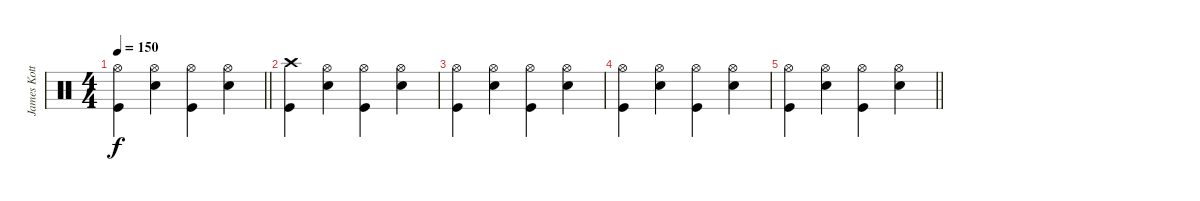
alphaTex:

\track ("James Kottak" "James Kott") {instrument percussion}
\staff {score}
\articulation defaults
\ts (4 4)
\tempo 150
\clef neutral
\barLineRight lightlight
\ks c
("Hi-Hat (open)" "Kick (hit)").4{dy f} ("Hi-Hat (open)" "Snare (hit) 2").4 ("Hi-Hat (open)" "Kick (hit)").4 ("Hi-Hat (open)" "Snare (hit) 2").4 |
("Crash high (hit)" "Kick (hit)").4 ("Hi-Hat (open)" "Snare (hit) 2").4 ("Hi-Hat (open)" "Kick (hit)").4 ("Hi-Hat (open)" "Snare (hit) 2").4 |
("Hi-Hat (open)" "Kick (hit)").4 ("Hi-Hat (open)" "Snare (hit) 2").4 ("Hi-Hat (open)" "Kick (hit)").4 ("Hi-Hat (open)" "Snare (hit) 2").4 |
("Hi-Hat (open)" "Kick (hit)").4 ("Hi-Hat (open)" "Snare (hit) 2").4 ("Hi-Hat (open)" "Kick (hit)").4 ("Hi-Hat (open)" "Snare (hit) 2").4 |
\barLineRight lightlight
("Hi-Hat (open)" "Kick (hit)").4 ("Hi-Hat (open)" "Snare (hit) 2").4 ("Hi-Hat (open)" "Kick (hit)").4 ("Hi-Hat (open)" "Snare (hit) 2").4
